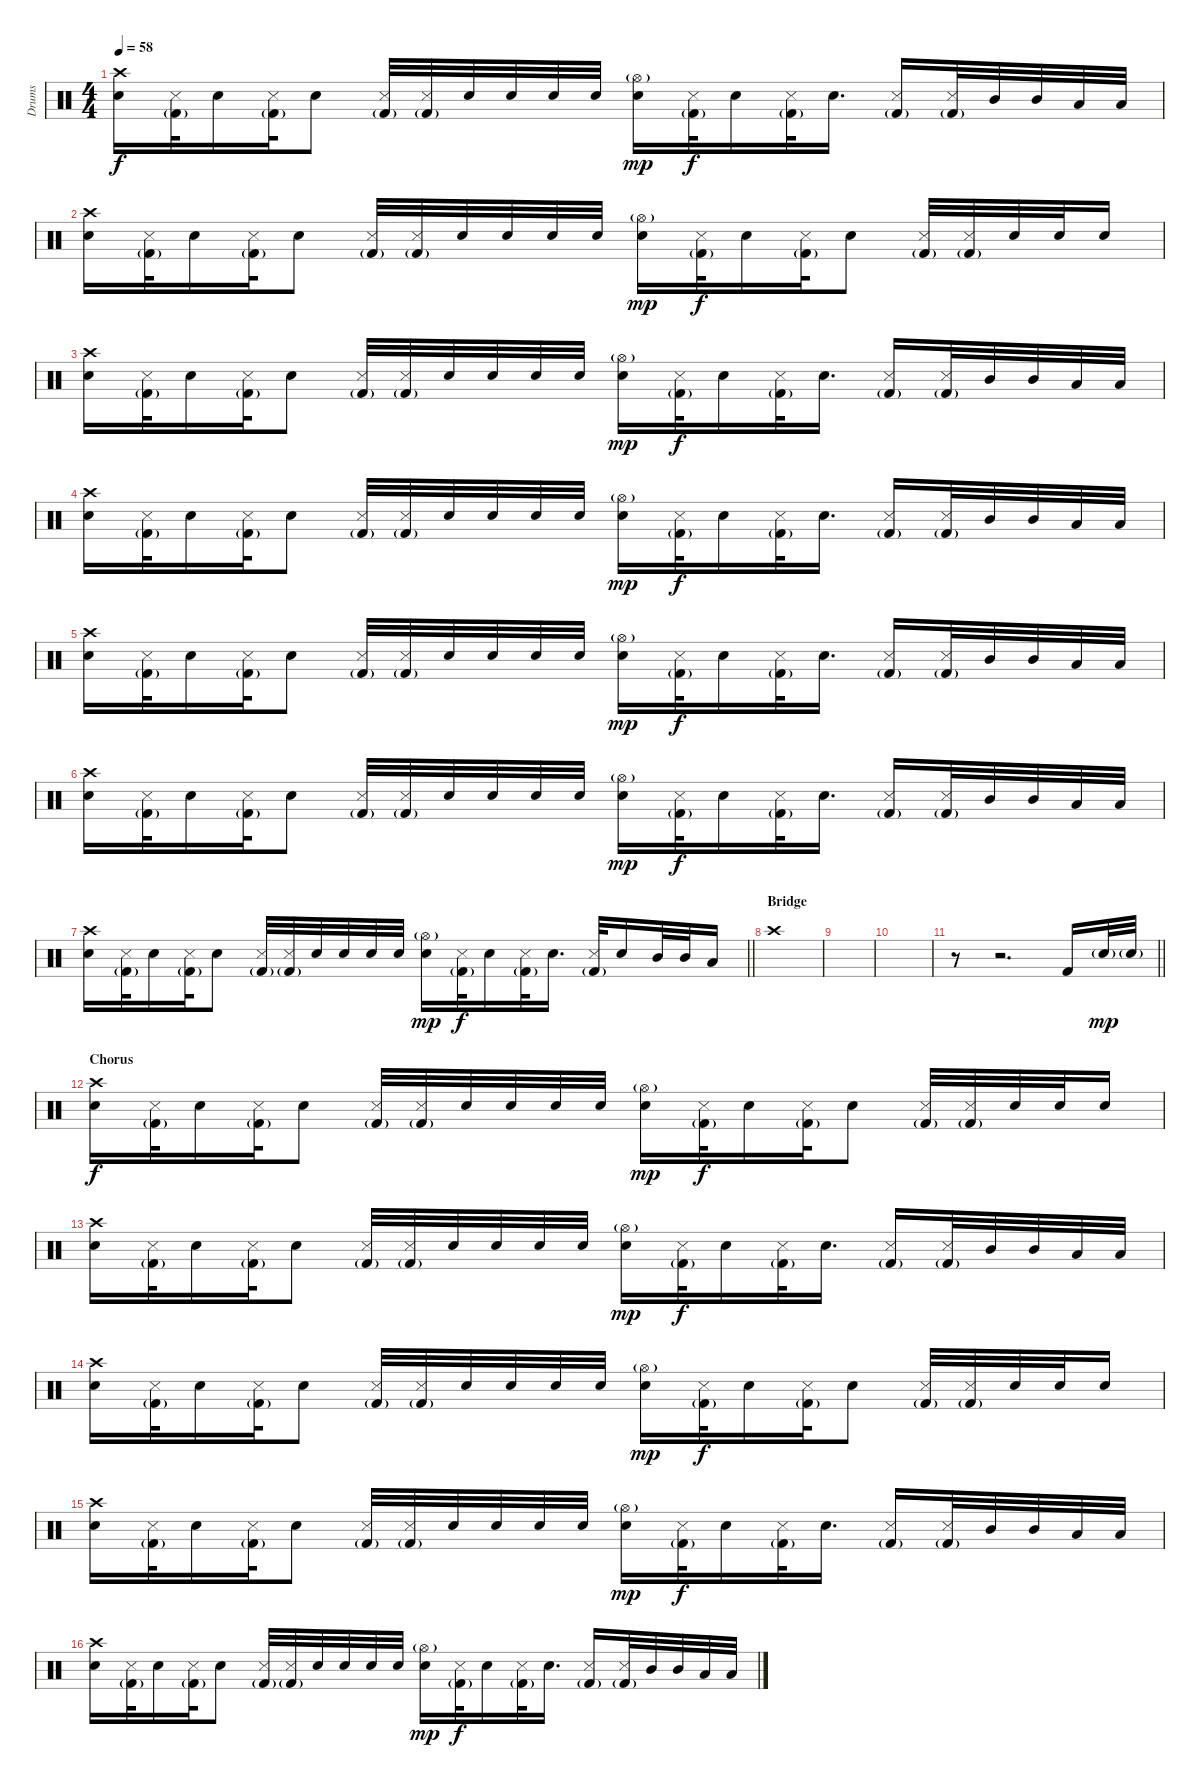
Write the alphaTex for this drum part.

\track ("Drums" "Drums") {instrument percussion}
\staff {score}
\articulation defaults
\ts (4 4)
\tempo 58
\clef neutral
\ks c
("Crash high (hit)" "Electric Snare (hit)").16{dy f} ("Metronome (hit)" "Kick (hit) 2"{g}).32 "Electric Snare (hit)".16 ("Metronome (hit)" "Kick (hit) 2"{g}).32 "Electric Snare (hit)".8 ("Metronome (hit)" "Kick (hit) 2"{g}).32 ("Metronome (hit)" "Kick (hit) 2"{g}).32 "Electric Snare (hit)".32 "Electric Snare (hit)".32 "Electric Snare (hit)".32 "Electric Snare (hit)".32 ("Hi-Hat (open)"{g} "Electric Snare (hit)").16{dy mp} ("Metronome (hit)" "Kick (hit) 2"{g}).32{dy f} "Electric Snare (hit)".16 ("Metronome (hit)" "Kick (hit) 2"{g}).32 "Electric Snare (hit)".16{d} ("Metronome (hit)" "Kick (hit) 2"{g}).16 ("Metronome (hit)" "Kick (hit) 2"{g}).32 "Mid Tom (hit)".32 "Mid Tom (hit)".32 "Low Tom (hit)".32 "Low Tom (hit)".32 |
("Crash high (hit)" "Electric Snare (hit)").16 ("Metronome (hit)" "Kick (hit) 2"{g}).32 "Electric Snare (hit)".16 ("Metronome (hit)" "Kick (hit) 2"{g}).32 "Electric Snare (hit)".8 ("Metronome (hit)" "Kick (hit) 2"{g}).32 ("Metronome (hit)" "Kick (hit) 2"{g}).32 "Electric Snare (hit)".32 "Electric Snare (hit)".32 "Electric Snare (hit)".32 "Electric Snare (hit)".32 ("Hi-Hat (open)"{g} "Electric Snare (hit)").16{dy mp} ("Metronome (hit)" "Kick (hit) 2"{g}).32{dy f} "Electric Snare (hit)".16 ("Metronome (hit)" "Kick (hit) 2"{g}).32 "Electric Snare (hit)".8 ("Metronome (hit)" "Kick (hit) 2"{g}).32 ("Metronome (hit)" "Kick (hit) 2"{g}).32 "Electric Snare (hit)".32 "Electric Snare (hit)".32 "Electric Snare (hit)".16 |
("Crash high (hit)" "Electric Snare (hit)").16 ("Metronome (hit)" "Kick (hit) 2"{g}).32 "Electric Snare (hit)".16 ("Metronome (hit)" "Kick (hit) 2"{g}).32 "Electric Snare (hit)".8 ("Metronome (hit)" "Kick (hit) 2"{g}).32 ("Metronome (hit)" "Kick (hit) 2"{g}).32 "Electric Snare (hit)".32 "Electric Snare (hit)".32 "Electric Snare (hit)".32 "Electric Snare (hit)".32 ("Hi-Hat (open)"{g} "Electric Snare (hit)").16{dy mp} ("Metronome (hit)" "Kick (hit) 2"{g}).32{dy f} "Electric Snare (hit)".16 ("Metronome (hit)" "Kick (hit) 2"{g}).32 "Electric Snare (hit)".16{d} ("Metronome (hit)" "Kick (hit) 2"{g}).16 ("Metronome (hit)" "Kick (hit) 2"{g}).32 "Mid Tom (hit)".32 "Mid Tom (hit)".32 "Low Tom (hit)".32 "Low Tom (hit)".32 |
("Crash high (hit)" "Electric Snare (hit)").16 ("Metronome (hit)" "Kick (hit) 2"{g}).32 "Electric Snare (hit)".16 ("Metronome (hit)" "Kick (hit) 2"{g}).32 "Electric Snare (hit)".8 ("Metronome (hit)" "Kick (hit) 2"{g}).32 ("Metronome (hit)" "Kick (hit) 2"{g}).32 "Electric Snare (hit)".32 "Electric Snare (hit)".32 "Electric Snare (hit)".32 "Electric Snare (hit)".32 ("Hi-Hat (open)"{g} "Electric Snare (hit)").16{dy mp} ("Metronome (hit)" "Kick (hit) 2"{g}).32{dy f} "Electric Snare (hit)".16 ("Metronome (hit)" "Kick (hit) 2"{g}).32 "Electric Snare (hit)".16{d} ("Metronome (hit)" "Kick (hit) 2"{g}).16 ("Metronome (hit)" "Kick (hit) 2"{g}).32 "Mid Tom (hit)".32 "Mid Tom (hit)".32 "Low Tom (hit)".32 "Low Tom (hit)".32 |
("Crash high (hit)" "Electric Snare (hit)").16 ("Metronome (hit)" "Kick (hit) 2"{g}).32 "Electric Snare (hit)".16 ("Metronome (hit)" "Kick (hit) 2"{g}).32 "Electric Snare (hit)".8 ("Metronome (hit)" "Kick (hit) 2"{g}).32 ("Metronome (hit)" "Kick (hit) 2"{g}).32 "Electric Snare (hit)".32 "Electric Snare (hit)".32 "Electric Snare (hit)".32 "Electric Snare (hit)".32 ("Hi-Hat (open)"{g} "Electric Snare (hit)").16{dy mp} ("Metronome (hit)" "Kick (hit) 2"{g}).32{dy f} "Electric Snare (hit)".16 ("Metronome (hit)" "Kick (hit) 2"{g}).32 "Electric Snare (hit)".16{d} ("Metronome (hit)" "Kick (hit) 2"{g}).16 ("Metronome (hit)" "Kick (hit) 2"{g}).32 "Mid Tom (hit)".32 "Mid Tom (hit)".32 "Low Tom (hit)".32 "Low Tom (hit)".32 |
("Crash high (hit)" "Electric Snare (hit)").16 ("Metronome (hit)" "Kick (hit) 2"{g}).32 "Electric Snare (hit)".16 ("Metronome (hit)" "Kick (hit) 2"{g}).32 "Electric Snare (hit)".8 ("Metronome (hit)" "Kick (hit) 2"{g}).32 ("Metronome (hit)" "Kick (hit) 2"{g}).32 "Electric Snare (hit)".32 "Electric Snare (hit)".32 "Electric Snare (hit)".32 "Electric Snare (hit)".32 ("Hi-Hat (open)"{g} "Electric Snare (hit)").16{dy mp} ("Metronome (hit)" "Kick (hit) 2"{g}).32{dy f} "Electric Snare (hit)".16 ("Metronome (hit)" "Kick (hit) 2"{g}).32 "Electric Snare (hit)".16{d} ("Metronome (hit)" "Kick (hit) 2"{g}).16 ("Metronome (hit)" "Kick (hit) 2"{g}).32 "Mid Tom (hit)".32 "Mid Tom (hit)".32 "Low Tom (hit)".32 "Low Tom (hit)".32 |
\barLineRight lightlight
("Crash high (hit)" "Electric Snare (hit)").16 ("Metronome (hit)" "Kick (hit) 2"{g}).32 "Electric Snare (hit)".16 ("Metronome (hit)" "Kick (hit) 2"{g}).32 "Electric Snare (hit)".8 ("Metronome (hit)" "Kick (hit) 2"{g}).32 ("Metronome (hit)" "Kick (hit) 2"{g}).32 "Electric Snare (hit)".32 "Electric Snare (hit)".32 "Electric Snare (hit)".32 "Electric Snare (hit)".32 ("Hi-Hat (open)"{g} "Electric Snare (hit)").16{dy mp} ("Metronome (hit)" "Kick (hit) 2"{g}).32{dy f} "Electric Snare (hit)".16 ("Metronome (hit)" "Kick (hit) 2"{g}).32 "Electric Snare (hit)".16{d} ("Metronome (hit)" "Kick (hit) 2"{g}).32 "Electric Snare (hit)".16 "Mid Tom (hit)".32 "Mid Tom (hit)".32 "Low Tom (hit)".16 |
\section ("" "Bridge")
"Crash high (hit)".1 |
|
|
\barLineRight lightlight
r.8 r.2{d} "Kick (hit) 2".16 "Electric Snare (hit)"{g}.32{dy mp} "Electric Snare (hit)"{g}.32 |
\section ("" "Chorus")
("Crash high (hit)" "Electric Snare (hit)").16{dy f} ("Metronome (hit)" "Kick (hit) 2"{g}).32 "Electric Snare (hit)".16 ("Metronome (hit)" "Kick (hit) 2"{g}).32 "Electric Snare (hit)".8 ("Metronome (hit)" "Kick (hit) 2"{g}).32 ("Metronome (hit)" "Kick (hit) 2"{g}).32 "Electric Snare (hit)".32 "Electric Snare (hit)".32 "Electric Snare (hit)".32 "Electric Snare (hit)".32 ("Hi-Hat (open)"{g} "Electric Snare (hit)").16{dy mp} ("Metronome (hit)" "Kick (hit) 2"{g}).32{dy f} "Electric Snare (hit)".16 ("Metronome (hit)" "Kick (hit) 2"{g}).32 "Electric Snare (hit)".8 ("Metronome (hit)" "Kick (hit) 2"{g}).32 ("Metronome (hit)" "Kick (hit) 2"{g}).32 "Electric Snare (hit)".32 "Electric Snare (hit)".32 "Electric Snare (hit)".16 |
("Crash high (hit)" "Electric Snare (hit)").16 ("Metronome (hit)" "Kick (hit) 2"{g}).32 "Electric Snare (hit)".16 ("Metronome (hit)" "Kick (hit) 2"{g}).32 "Electric Snare (hit)".8 ("Metronome (hit)" "Kick (hit) 2"{g}).32 ("Metronome (hit)" "Kick (hit) 2"{g}).32 "Electric Snare (hit)".32 "Electric Snare (hit)".32 "Electric Snare (hit)".32 "Electric Snare (hit)".32 ("Hi-Hat (open)"{g} "Electric Snare (hit)").16{dy mp} ("Metronome (hit)" "Kick (hit) 2"{g}).32{dy f} "Electric Snare (hit)".16 ("Metronome (hit)" "Kick (hit) 2"{g}).32 "Electric Snare (hit)".16{d} ("Metronome (hit)" "Kick (hit) 2"{g}).16 ("Metronome (hit)" "Kick (hit) 2"{g}).32 "Mid Tom (hit)".32 "Mid Tom (hit)".32 "Low Tom (hit)".32 "Low Tom (hit)".32 |
("Crash high (hit)" "Electric Snare (hit)").16 ("Metronome (hit)" "Kick (hit) 2"{g}).32 "Electric Snare (hit)".16 ("Metronome (hit)" "Kick (hit) 2"{g}).32 "Electric Snare (hit)".8 ("Metronome (hit)" "Kick (hit) 2"{g}).32 ("Metronome (hit)" "Kick (hit) 2"{g}).32 "Electric Snare (hit)".32 "Electric Snare (hit)".32 "Electric Snare (hit)".32 "Electric Snare (hit)".32 ("Hi-Hat (open)"{g} "Electric Snare (hit)").16{dy mp} ("Metronome (hit)" "Kick (hit) 2"{g}).32{dy f} "Electric Snare (hit)".16 ("Metronome (hit)" "Kick (hit) 2"{g}).32 "Electric Snare (hit)".8 ("Metronome (hit)" "Kick (hit) 2"{g}).32 ("Metronome (hit)" "Kick (hit) 2"{g}).32 "Electric Snare (hit)".32 "Electric Snare (hit)".32 "Electric Snare (hit)".16 |
("Crash high (hit)" "Electric Snare (hit)").16 ("Metronome (hit)" "Kick (hit) 2"{g}).32 "Electric Snare (hit)".16 ("Metronome (hit)" "Kick (hit) 2"{g}).32 "Electric Snare (hit)".8 ("Metronome (hit)" "Kick (hit) 2"{g}).32 ("Metronome (hit)" "Kick (hit) 2"{g}).32 "Electric Snare (hit)".32 "Electric Snare (hit)".32 "Electric Snare (hit)".32 "Electric Snare (hit)".32 ("Hi-Hat (open)"{g} "Electric Snare (hit)").16{dy mp} ("Metronome (hit)" "Kick (hit) 2"{g}).32{dy f} "Electric Snare (hit)".16 ("Metronome (hit)" "Kick (hit) 2"{g}).32 "Electric Snare (hit)".16{d} ("Metronome (hit)" "Kick (hit) 2"{g}).16 ("Metronome (hit)" "Kick (hit) 2"{g}).32 "Mid Tom (hit)".32 "Mid Tom (hit)".32 "Low Tom (hit)".32 "Low Tom (hit)".32 |
("Crash high (hit)" "Electric Snare (hit)").16 ("Metronome (hit)" "Kick (hit) 2"{g}).32 "Electric Snare (hit)".16 ("Metronome (hit)" "Kick (hit) 2"{g}).32 "Electric Snare (hit)".8 ("Metronome (hit)" "Kick (hit) 2"{g}).32 ("Metronome (hit)" "Kick (hit) 2"{g}).32 "Electric Snare (hit)".32 "Electric Snare (hit)".32 "Electric Snare (hit)".32 "Electric Snare (hit)".32 ("Hi-Hat (open)"{g} "Electric Snare (hit)").16{dy mp} ("Metronome (hit)" "Kick (hit) 2"{g}).32{dy f} "Electric Snare (hit)".16 ("Metronome (hit)" "Kick (hit) 2"{g}).32 "Electric Snare (hit)".16{d} ("Metronome (hit)" "Kick (hit) 2"{g}).16 ("Metronome (hit)" "Kick (hit) 2"{g}).32 "Mid Tom (hit)".32 "Mid Tom (hit)".32 "Low Tom (hit)".32 "Low Tom (hit)".32
